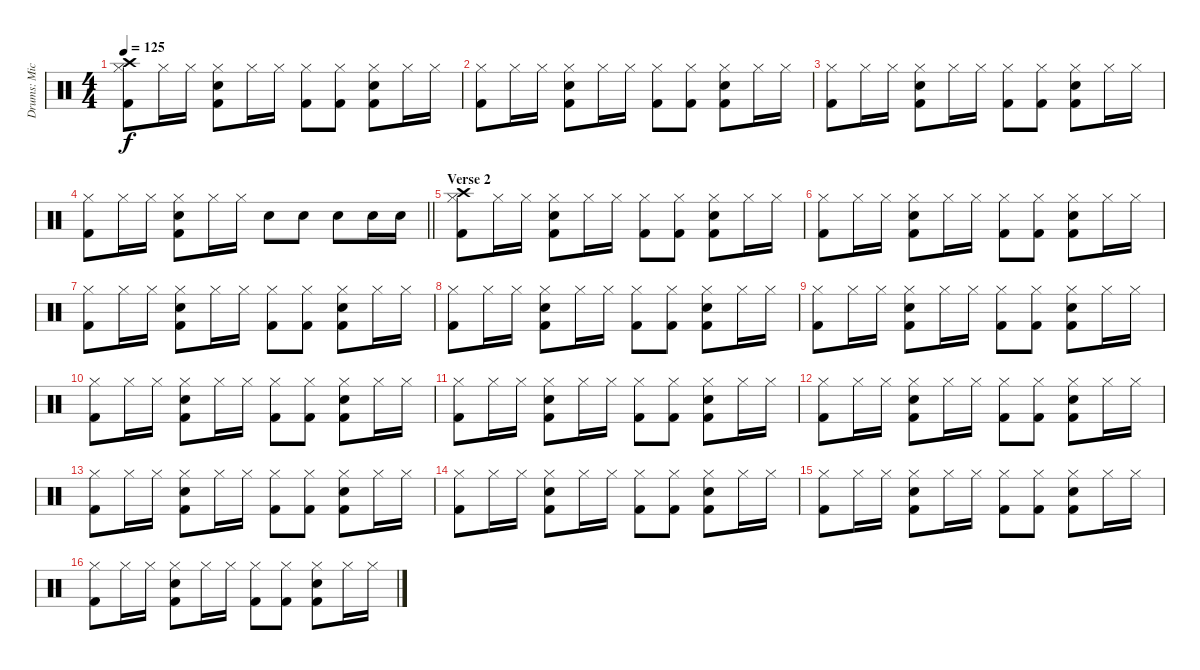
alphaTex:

\track ("Drums: Mick Fleetwood" "Drums: Mic") {instrument percussion}
\staff {score}
\articulation defaults
\ts (4 4)
\tempo 125
\clef neutral
\ks c
("Crash high (hit)" "Hi-Hat (closed)" "Kick (hit) 2").8{dy f} "Hi-Hat (closed)".16 "Hi-Hat (closed)".16 ("Hi-Hat (closed)" "Snare (hit) 2" "Kick (hit) 2").8 "Hi-Hat (closed)".16 "Hi-Hat (closed)".16 ("Hi-Hat (closed)" "Kick (hit) 2").8 ("Hi-Hat (closed)" "Kick (hit) 2").8 ("Hi-Hat (closed)" "Snare (hit) 2" "Kick (hit) 2").8 "Hi-Hat (closed)".16 "Hi-Hat (closed)".16 |
("Hi-Hat (closed)" "Kick (hit) 2").8 "Hi-Hat (closed)".16 "Hi-Hat (closed)".16 ("Hi-Hat (closed)" "Snare (hit) 2" "Kick (hit) 2").8 "Hi-Hat (closed)".16 "Hi-Hat (closed)".16 ("Hi-Hat (closed)" "Kick (hit) 2").8 ("Hi-Hat (closed)" "Kick (hit) 2").8 ("Hi-Hat (closed)" "Snare (hit) 2" "Kick (hit) 2").8 "Hi-Hat (closed)".16 "Hi-Hat (closed)".16 |
("Hi-Hat (closed)" "Kick (hit) 2").8 "Hi-Hat (closed)".16 "Hi-Hat (closed)".16 ("Hi-Hat (closed)" "Snare (hit) 2" "Kick (hit) 2").8 "Hi-Hat (closed)".16 "Hi-Hat (closed)".16 ("Hi-Hat (closed)" "Kick (hit) 2").8 ("Hi-Hat (closed)" "Kick (hit) 2").8 ("Hi-Hat (closed)" "Snare (hit) 2" "Kick (hit) 2").8 "Hi-Hat (closed)".16 "Hi-Hat (closed)".16 |
\barLineRight lightlight
("Hi-Hat (closed)" "Kick (hit) 2").8 "Hi-Hat (closed)".16 "Hi-Hat (closed)".16 ("Hi-Hat (closed)" "Snare (hit) 2" "Kick (hit) 2").8 "Hi-Hat (closed)".16 "Hi-Hat (closed)".16 "Snare (hit) 2".8 "Snare (hit) 2".8 "Snare (hit) 2".8 "Snare (hit) 2".16 "Snare (hit) 2".16 |
\section ("" "Verse 2")
("Crash high (hit)" "Hi-Hat (closed)" "Kick (hit) 2").8 "Hi-Hat (closed)".16 "Hi-Hat (closed)".16 ("Hi-Hat (closed)" "Snare (hit) 2" "Kick (hit) 2").8 "Hi-Hat (closed)".16 "Hi-Hat (closed)".16 ("Hi-Hat (closed)" "Kick (hit) 2").8 ("Hi-Hat (closed)" "Kick (hit) 2").8 ("Hi-Hat (closed)" "Snare (hit) 2" "Kick (hit) 2").8 "Hi-Hat (closed)".16 "Hi-Hat (closed)".16 |
("Hi-Hat (closed)" "Kick (hit) 2").8 "Hi-Hat (closed)".16 "Hi-Hat (closed)".16 ("Hi-Hat (closed)" "Snare (hit) 2" "Kick (hit) 2").8 "Hi-Hat (closed)".16 "Hi-Hat (closed)".16 ("Hi-Hat (closed)" "Kick (hit) 2").8 ("Hi-Hat (closed)" "Kick (hit) 2").8 ("Hi-Hat (closed)" "Snare (hit) 2" "Kick (hit) 2").8 "Hi-Hat (closed)".16 "Hi-Hat (closed)".16 |
("Hi-Hat (closed)" "Kick (hit) 2").8 "Hi-Hat (closed)".16 "Hi-Hat (closed)".16 ("Hi-Hat (closed)" "Snare (hit) 2" "Kick (hit) 2").8 "Hi-Hat (closed)".16 "Hi-Hat (closed)".16 ("Hi-Hat (closed)" "Kick (hit) 2").8 ("Hi-Hat (closed)" "Kick (hit) 2").8 ("Hi-Hat (closed)" "Snare (hit) 2" "Kick (hit) 2").8 "Hi-Hat (closed)".16 "Hi-Hat (closed)".16 |
("Hi-Hat (closed)" "Kick (hit) 2").8 "Hi-Hat (closed)".16 "Hi-Hat (closed)".16 ("Hi-Hat (closed)" "Snare (hit) 2" "Kick (hit) 2").8 "Hi-Hat (closed)".16 "Hi-Hat (closed)".16 ("Hi-Hat (closed)" "Kick (hit) 2").8 ("Hi-Hat (closed)" "Kick (hit) 2").8 ("Hi-Hat (closed)" "Snare (hit) 2" "Kick (hit) 2").8 "Hi-Hat (closed)".16 "Hi-Hat (closed)".16 |
("Hi-Hat (closed)" "Kick (hit) 2").8 "Hi-Hat (closed)".16 "Hi-Hat (closed)".16 ("Hi-Hat (closed)" "Snare (hit) 2" "Kick (hit) 2").8 "Hi-Hat (closed)".16 "Hi-Hat (closed)".16 ("Hi-Hat (closed)" "Kick (hit) 2").8 ("Hi-Hat (closed)" "Kick (hit) 2").8 ("Hi-Hat (closed)" "Snare (hit) 2" "Kick (hit) 2").8 "Hi-Hat (closed)".16 "Hi-Hat (closed)".16 |
("Hi-Hat (closed)" "Kick (hit) 2").8 "Hi-Hat (closed)".16 "Hi-Hat (closed)".16 ("Hi-Hat (closed)" "Snare (hit) 2" "Kick (hit) 2").8 "Hi-Hat (closed)".16 "Hi-Hat (closed)".16 ("Hi-Hat (closed)" "Kick (hit) 2").8 ("Hi-Hat (closed)" "Kick (hit) 2").8 ("Hi-Hat (closed)" "Snare (hit) 2" "Kick (hit) 2").8 "Hi-Hat (closed)".16 "Hi-Hat (closed)".16 |
("Hi-Hat (closed)" "Kick (hit) 2").8 "Hi-Hat (closed)".16 "Hi-Hat (closed)".16 ("Hi-Hat (closed)" "Snare (hit) 2" "Kick (hit) 2").8 "Hi-Hat (closed)".16 "Hi-Hat (closed)".16 ("Hi-Hat (closed)" "Kick (hit) 2").8 ("Hi-Hat (closed)" "Kick (hit) 2").8 ("Hi-Hat (closed)" "Snare (hit) 2" "Kick (hit) 2").8 "Hi-Hat (closed)".16 "Hi-Hat (closed)".16 |
("Hi-Hat (closed)" "Kick (hit) 2").8 "Hi-Hat (closed)".16 "Hi-Hat (closed)".16 ("Hi-Hat (closed)" "Snare (hit) 2" "Kick (hit) 2").8 "Hi-Hat (closed)".16 "Hi-Hat (closed)".16 ("Hi-Hat (closed)" "Kick (hit) 2").8 ("Hi-Hat (closed)" "Kick (hit) 2").8 ("Hi-Hat (closed)" "Snare (hit) 2" "Kick (hit) 2").8 "Hi-Hat (closed)".16 "Hi-Hat (closed)".16 |
("Hi-Hat (closed)" "Kick (hit) 2").8 "Hi-Hat (closed)".16 "Hi-Hat (closed)".16 ("Hi-Hat (closed)" "Snare (hit) 2" "Kick (hit) 2").8 "Hi-Hat (closed)".16 "Hi-Hat (closed)".16 ("Hi-Hat (closed)" "Kick (hit) 2").8 ("Hi-Hat (closed)" "Kick (hit) 2").8 ("Hi-Hat (closed)" "Snare (hit) 2" "Kick (hit) 2").8 "Hi-Hat (closed)".16 "Hi-Hat (closed)".16 |
("Hi-Hat (closed)" "Kick (hit) 2").8 "Hi-Hat (closed)".16 "Hi-Hat (closed)".16 ("Hi-Hat (closed)" "Snare (hit) 2" "Kick (hit) 2").8 "Hi-Hat (closed)".16 "Hi-Hat (closed)".16 ("Hi-Hat (closed)" "Kick (hit) 2").8 ("Hi-Hat (closed)" "Kick (hit) 2").8 ("Hi-Hat (closed)" "Snare (hit) 2" "Kick (hit) 2").8 "Hi-Hat (closed)".16 "Hi-Hat (closed)".16 |
("Hi-Hat (closed)" "Kick (hit) 2").8 "Hi-Hat (closed)".16 "Hi-Hat (closed)".16 ("Hi-Hat (closed)" "Snare (hit) 2" "Kick (hit) 2").8 "Hi-Hat (closed)".16 "Hi-Hat (closed)".16 ("Hi-Hat (closed)" "Kick (hit) 2").8 ("Hi-Hat (closed)" "Kick (hit) 2").8 ("Hi-Hat (closed)" "Snare (hit) 2" "Kick (hit) 2").8 "Hi-Hat (closed)".16 "Hi-Hat (closed)".16 |
("Hi-Hat (closed)" "Kick (hit) 2").8 "Hi-Hat (closed)".16 "Hi-Hat (closed)".16 ("Hi-Hat (closed)" "Snare (hit) 2" "Kick (hit) 2").8 "Hi-Hat (closed)".16 "Hi-Hat (closed)".16 ("Hi-Hat (closed)" "Kick (hit) 2").8 ("Hi-Hat (closed)" "Kick (hit) 2").8 ("Hi-Hat (closed)" "Snare (hit) 2" "Kick (hit) 2").8 "Hi-Hat (closed)".16 "Hi-Hat (closed)".16
